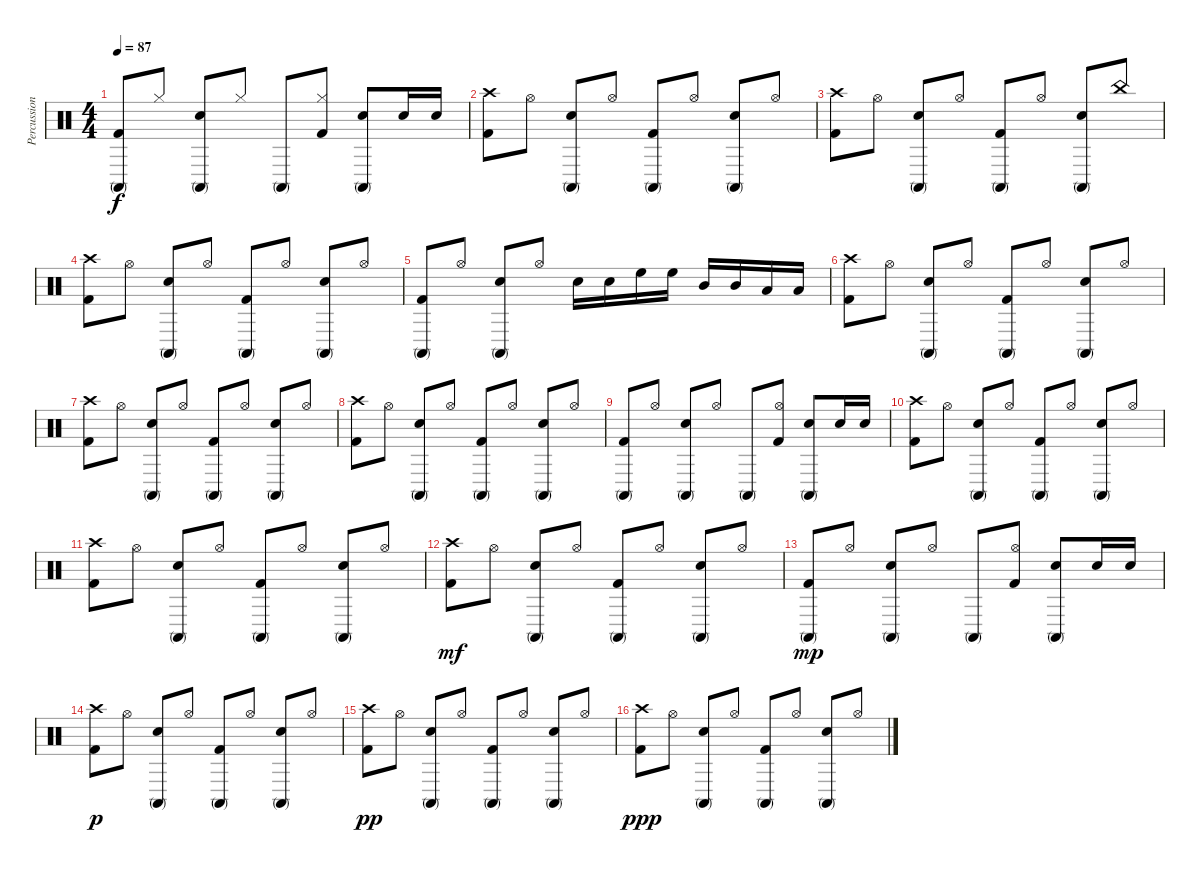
\track ("Percussions" "Percussion") {instrument percussion}
\staff {score}
\articulation defaults
\ts (4 4)
\tempo 87
\clef neutral
\ks c
("Conga high (mute)" "Kick (hit) 2").8{dy f} "Hi-Hat (closed)".8 ("Conga high (mute)" "Snare (hit) 2").8 "Hi-Hat (closed)".8 "Conga high (mute)".8 ("Hi-Hat (closed)" "Kick (hit) 2").8 ("Conga high (mute)" "Snare (hit) 2").8 "Snare (hit) 2".16 "Snare (hit) 2".16 |
("Crash high (hit)" "Kick (hit) 2").8 "Hi-Hat (open)".8 ("Conga high (mute)" "Snare (hit) 2").8 "Hi-Hat (open)".8 ("Conga high (mute)" "Kick (hit) 2").8 "Hi-Hat (open)".8 ("Conga high (mute)" "Snare (hit) 2").8 "Hi-Hat (open)".8 |
("Crash high (hit)" "Kick (hit) 2").8 "Hi-Hat (open)".8 ("Conga high (mute)" "Snare (hit) 2").8 "Hi-Hat (open)".8 ("Conga high (mute)" "Kick (hit) 2").8 "Hi-Hat (open)".8 ("Conga high (mute)" "Snare (hit) 2").8 "China (hit)".8 |
("Crash high (hit)" "Kick (hit) 2").8 "Hi-Hat (open)".8 ("Conga high (mute)" "Snare (hit) 2").8 "Hi-Hat (open)".8 ("Conga high (mute)" "Kick (hit) 2").8 "Hi-Hat (open)".8 ("Conga high (mute)" "Snare (hit) 2").8 "Hi-Hat (open)".8 |
("Conga high (mute)" "Kick (hit) 2").8 "Hi-Hat (open)".8 ("Conga high (mute)" "Snare (hit) 2").8 "Hi-Hat (open)".8 "Snare (hit) 2".16 "Snare (hit) 2".16 "High Floor Tom (hit)".16 "High Floor Tom (hit)".16 "Mid Tom (hit)".16 "Mid Tom (hit)".16 "Low Tom (hit)".16 "Low Floor Tom (hit)".16 |
("Crash high (hit)" "Kick (hit) 2").8 "Hi-Hat (open)".8 ("Conga high (mute)" "Snare (hit) 2").8 "Hi-Hat (open)".8 ("Conga high (mute)" "Kick (hit) 2").8 "Hi-Hat (open)".8 ("Conga high (mute)" "Snare (hit) 2").8 "Hi-Hat (open)".8 |
("Crash high (hit)" "Kick (hit) 2").8 "Hi-Hat (open)".8 ("Conga high (mute)" "Snare (hit) 2").8 "Hi-Hat (open)".8 ("Conga high (mute)" "Kick (hit) 2").8 "Hi-Hat (open)".8 ("Conga high (mute)" "Snare (hit) 2").8 "Hi-Hat (open)".8 |
("Crash high (hit)" "Kick (hit) 2").8 "Hi-Hat (open)".8 ("Conga high (mute)" "Snare (hit) 2").8 "Hi-Hat (open)".8 ("Conga high (mute)" "Kick (hit) 2").8 "Hi-Hat (open)".8 ("Conga high (mute)" "Snare (hit) 2").8 "Hi-Hat (open)".8 |
("Conga high (mute)" "Kick (hit) 2").8 "Hi-Hat (open)".8 ("Conga high (mute)" "Snare (hit) 2").8 "Hi-Hat (open)".8 "Conga high (mute)".8 ("Hi-Hat (open)" "Kick (hit) 2").8 ("Conga high (mute)" "Snare (hit) 2").8 "Snare (hit) 2".16 "Snare (hit) 2".16 |
("Crash high (hit)" "Kick (hit) 2").8 "Hi-Hat (open)".8 ("Conga high (mute)" "Snare (hit) 2").8 "Hi-Hat (open)".8 ("Conga high (mute)" "Kick (hit) 2").8 "Hi-Hat (open)".8 ("Conga high (mute)" "Snare (hit) 2").8 "Hi-Hat (open)".8 |
("Crash high (hit)" "Kick (hit) 2").8 "Hi-Hat (open)".8 ("Conga high (mute)" "Snare (hit) 2").8 "Hi-Hat (open)".8 ("Conga high (mute)" "Kick (hit) 2").8 "Hi-Hat (open)".8 ("Conga high (mute)" "Snare (hit) 2").8 "Hi-Hat (open)".8 |
("Crash high (hit)" "Kick (hit) 2").8{dy mf} "Hi-Hat (open)".8 ("Conga high (mute)" "Snare (hit) 2").8 "Hi-Hat (open)".8 ("Conga high (mute)" "Kick (hit) 2").8 "Hi-Hat (open)".8 ("Conga high (mute)" "Snare (hit) 2").8 "Hi-Hat (open)".8 |
("Conga high (mute)" "Kick (hit) 2").8{dy mp} "Hi-Hat (open)".8 ("Conga high (mute)" "Snare (hit) 2").8 "Hi-Hat (open)".8 "Conga high (mute)".8 ("Hi-Hat (open)" "Kick (hit) 2").8 ("Conga high (mute)" "Snare (hit) 2").8 "Snare (hit) 2".16 "Snare (hit) 2".16 |
("Crash high (hit)" "Kick (hit) 2").8{dy p} "Hi-Hat (open)".8 ("Conga high (mute)" "Snare (hit) 2").8 "Hi-Hat (open)".8 ("Conga high (mute)" "Kick (hit) 2").8 "Hi-Hat (open)".8 ("Conga high (mute)" "Snare (hit) 2").8 "Hi-Hat (open)".8 |
("Crash high (hit)" "Kick (hit) 2").8{dy pp} "Hi-Hat (open)".8 ("Conga high (mute)" "Snare (hit) 2").8 "Hi-Hat (open)".8 ("Conga high (mute)" "Kick (hit) 2").8 "Hi-Hat (open)".8 ("Conga high (mute)" "Snare (hit) 2").8 "Hi-Hat (open)".8 |
("Crash high (hit)" "Kick (hit) 2").8{dy ppp} "Hi-Hat (open)".8 ("Conga high (mute)" "Snare (hit) 2").8 "Hi-Hat (open)".8 ("Conga high (mute)" "Kick (hit) 2").8 "Hi-Hat (open)".8 ("Conga high (mute)" "Snare (hit) 2").8 "Hi-Hat (open)".8
